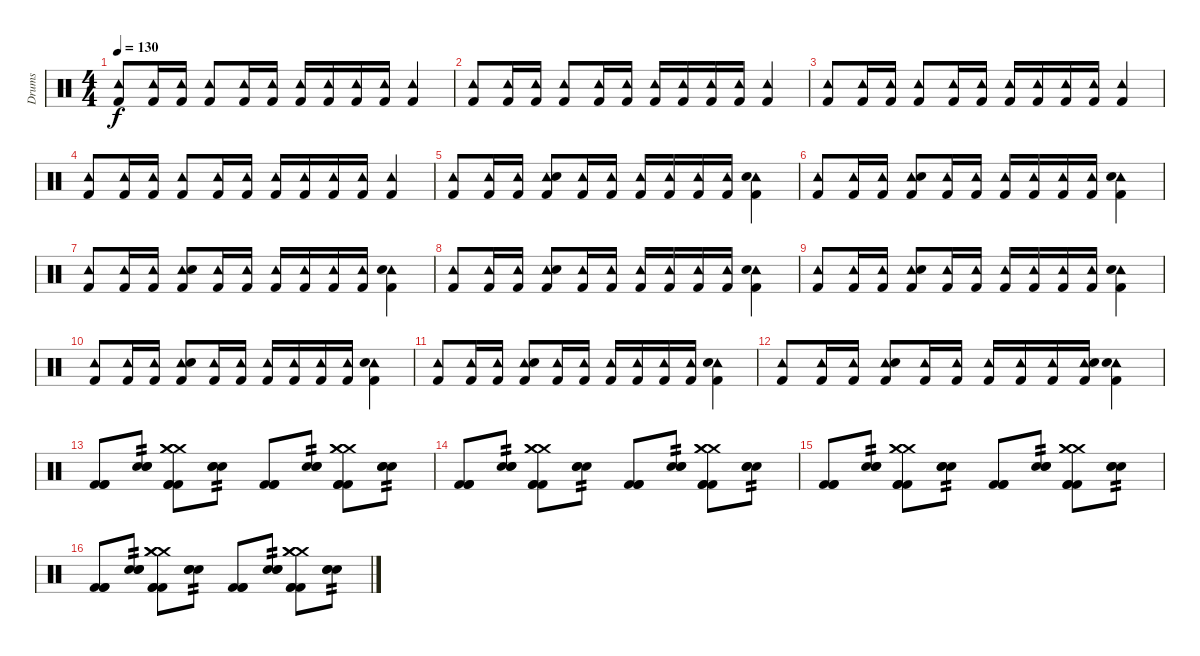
\track ("Drums" "Drums") {instrument percussion}
\staff {score}
\articulation defaults
\ts (4 4)
\tempo 130
\clef neutral
\ks c
("Tambourine (hit)" "Kick (hit) 2").8{dy f} ("Tambourine (hit)" "Kick (hit) 2").16 ("Tambourine (hit)" "Kick (hit) 2").16 ("Tambourine (hit)" "Kick (hit) 2").8 ("Tambourine (hit)" "Kick (hit) 2").16 ("Tambourine (hit)" "Kick (hit) 2").16 ("Tambourine (hit)" "Kick (hit) 2").16 ("Tambourine (hit)" "Kick (hit) 2").16 ("Tambourine (hit)" "Kick (hit) 2").16 ("Tambourine (hit)" "Kick (hit) 2").16 ("Tambourine (hit)" "Kick (hit) 2").4 |
("Tambourine (hit)" "Kick (hit) 2").8 ("Tambourine (hit)" "Kick (hit) 2").16 ("Tambourine (hit)" "Kick (hit) 2").16 ("Tambourine (hit)" "Kick (hit) 2").8 ("Tambourine (hit)" "Kick (hit) 2").16 ("Tambourine (hit)" "Kick (hit) 2").16 ("Tambourine (hit)" "Kick (hit) 2").16 ("Tambourine (hit)" "Kick (hit) 2").16 ("Tambourine (hit)" "Kick (hit) 2").16 ("Tambourine (hit)" "Kick (hit) 2").16 ("Tambourine (hit)" "Kick (hit) 2").4 |
("Tambourine (hit)" "Kick (hit) 2").8 ("Tambourine (hit)" "Kick (hit) 2").16 ("Tambourine (hit)" "Kick (hit) 2").16 ("Tambourine (hit)" "Kick (hit) 2").8 ("Tambourine (hit)" "Kick (hit) 2").16 ("Tambourine (hit)" "Kick (hit) 2").16 ("Tambourine (hit)" "Kick (hit) 2").16 ("Tambourine (hit)" "Kick (hit) 2").16 ("Tambourine (hit)" "Kick (hit) 2").16 ("Tambourine (hit)" "Kick (hit) 2").16 ("Tambourine (hit)" "Kick (hit) 2").4 |
("Tambourine (hit)" "Kick (hit) 2").8 ("Tambourine (hit)" "Kick (hit) 2").16 ("Tambourine (hit)" "Kick (hit) 2").16 ("Tambourine (hit)" "Kick (hit) 2").8 ("Tambourine (hit)" "Kick (hit) 2").16 ("Tambourine (hit)" "Kick (hit) 2").16 ("Tambourine (hit)" "Kick (hit) 2").16 ("Tambourine (hit)" "Kick (hit) 2").16 ("Tambourine (hit)" "Kick (hit) 2").16 ("Tambourine (hit)" "Kick (hit) 2").16 ("Tambourine (hit)" "Kick (hit) 2").4 |
("Tambourine (hit)" "Kick (hit) 2").8 ("Tambourine (hit)" "Kick (hit) 2").16 ("Tambourine (hit)" "Kick (hit) 2").16 ("Tambourine (hit)" "Kick (hit) 2" "Electric Snare (hit)").8 ("Tambourine (hit)" "Kick (hit) 2").16 ("Tambourine (hit)" "Kick (hit) 2").16 ("Tambourine (hit)" "Kick (hit) 2").16 ("Tambourine (hit)" "Kick (hit) 2").16 ("Tambourine (hit)" "Kick (hit) 2").16 ("Tambourine (hit)" "Kick (hit) 2").16 ("Tambourine (hit)" "Kick (hit) 2" "Electric Snare (hit)").4 |
("Tambourine (hit)" "Kick (hit) 2").8 ("Tambourine (hit)" "Kick (hit) 2").16 ("Tambourine (hit)" "Kick (hit) 2").16 ("Tambourine (hit)" "Kick (hit) 2" "Electric Snare (hit)").8 ("Tambourine (hit)" "Kick (hit) 2").16 ("Tambourine (hit)" "Kick (hit) 2").16 ("Tambourine (hit)" "Kick (hit) 2").16 ("Tambourine (hit)" "Kick (hit) 2").16 ("Tambourine (hit)" "Kick (hit) 2").16 ("Tambourine (hit)" "Kick (hit) 2").16 ("Tambourine (hit)" "Kick (hit) 2" "Electric Snare (hit)").4 |
("Tambourine (hit)" "Kick (hit) 2").8 ("Tambourine (hit)" "Kick (hit) 2").16 ("Tambourine (hit)" "Kick (hit) 2").16 ("Tambourine (hit)" "Kick (hit) 2" "Electric Snare (hit)").8 ("Tambourine (hit)" "Kick (hit) 2").16 ("Tambourine (hit)" "Kick (hit) 2").16 ("Tambourine (hit)" "Kick (hit) 2").16 ("Tambourine (hit)" "Kick (hit) 2").16 ("Tambourine (hit)" "Kick (hit) 2").16 ("Tambourine (hit)" "Kick (hit) 2").16 ("Tambourine (hit)" "Kick (hit) 2" "Electric Snare (hit)").4 |
("Tambourine (hit)" "Kick (hit) 2").8 ("Tambourine (hit)" "Kick (hit) 2").16 ("Tambourine (hit)" "Kick (hit) 2").16 ("Tambourine (hit)" "Kick (hit) 2" "Electric Snare (hit)").8 ("Tambourine (hit)" "Kick (hit) 2").16 ("Tambourine (hit)" "Kick (hit) 2").16 ("Tambourine (hit)" "Kick (hit) 2").16 ("Tambourine (hit)" "Kick (hit) 2").16 ("Tambourine (hit)" "Kick (hit) 2").16 ("Tambourine (hit)" "Kick (hit) 2").16 ("Tambourine (hit)" "Kick (hit) 2" "Electric Snare (hit)").4 |
("Tambourine (hit)" "Kick (hit) 2").8 ("Tambourine (hit)" "Kick (hit) 2").16 ("Tambourine (hit)" "Kick (hit) 2").16 ("Tambourine (hit)" "Kick (hit) 2" "Electric Snare (hit)").8 ("Tambourine (hit)" "Kick (hit) 2").16 ("Tambourine (hit)" "Kick (hit) 2").16 ("Tambourine (hit)" "Kick (hit) 2").16 ("Tambourine (hit)" "Kick (hit) 2").16 ("Tambourine (hit)" "Kick (hit) 2").16 ("Tambourine (hit)" "Kick (hit) 2").16 ("Tambourine (hit)" "Kick (hit) 2" "Electric Snare (hit)").4 |
("Tambourine (hit)" "Kick (hit) 2").8 ("Tambourine (hit)" "Kick (hit) 2").16 ("Tambourine (hit)" "Kick (hit) 2").16 ("Tambourine (hit)" "Kick (hit) 2" "Electric Snare (hit)").8 ("Tambourine (hit)" "Kick (hit) 2").16 ("Tambourine (hit)" "Kick (hit) 2").16 ("Tambourine (hit)" "Kick (hit) 2").16 ("Tambourine (hit)" "Kick (hit) 2").16 ("Tambourine (hit)" "Kick (hit) 2").16 ("Tambourine (hit)" "Kick (hit) 2").16 ("Tambourine (hit)" "Kick (hit) 2" "Electric Snare (hit)").4 |
("Tambourine (hit)" "Kick (hit) 2").8 ("Tambourine (hit)" "Kick (hit) 2").16 ("Tambourine (hit)" "Kick (hit) 2").16 ("Tambourine (hit)" "Kick (hit) 2" "Electric Snare (hit)").8 ("Tambourine (hit)" "Kick (hit) 2").16 ("Tambourine (hit)" "Kick (hit) 2").16 ("Tambourine (hit)" "Kick (hit) 2").16 ("Tambourine (hit)" "Kick (hit) 2").16 ("Tambourine (hit)" "Kick (hit) 2").16 ("Tambourine (hit)" "Kick (hit) 2").16 ("Tambourine (hit)" "Kick (hit) 2" "Electric Snare (hit)").4 |
("Tambourine (hit)" "Kick (hit) 2").8 ("Tambourine (hit)" "Kick (hit) 2").16 ("Tambourine (hit)" "Kick (hit) 2").16 ("Tambourine (hit)" "Kick (hit) 2" "Electric Snare (hit)").8 ("Tambourine (hit)" "Kick (hit) 2").16 ("Tambourine (hit)" "Kick (hit) 2").16 ("Tambourine (hit)" "Kick (hit) 2").16 ("Tambourine (hit)" "Kick (hit) 2").16 ("Tambourine (hit)" "Kick (hit) 2").16 ("Tambourine (hit)" "Kick (hit) 2" "Electric Snare (hit)").16 ("Tambourine (hit)" "Kick (hit) 2" "Electric Snare (hit)").4 |
("Kick (hit) 2" "Kick (hit) 2" "Kick (hit) 2").8 ("Electric Snare (hit)" "Electric Snare (hit)" "Electric Snare (hit)").8{tp 2} ("Kick (hit) 2" "Kick (hit) 2" "Kick (hit) 2" "Crash medium (hit)" "Crash medium (hit)" "Crash medium (hit)").8 ("Electric Snare (hit)" "Electric Snare (hit)" "Electric Snare (hit)").8{tp 2} ("Kick (hit) 2" "Kick (hit) 2" "Kick (hit) 2").8 ("Electric Snare (hit)" "Electric Snare (hit)" "Electric Snare (hit)").8{tp 2} ("Kick (hit) 2" "Kick (hit) 2" "Kick (hit) 2" "Crash medium (hit)" "Crash medium (hit)" "Crash medium (hit)").8 ("Electric Snare (hit)" "Electric Snare (hit)" "Electric Snare (hit)").8{tp 2} |
("Kick (hit) 2" "Kick (hit) 2" "Kick (hit) 2").8 ("Electric Snare (hit)" "Electric Snare (hit)" "Electric Snare (hit)").8{tp 2} ("Kick (hit) 2" "Kick (hit) 2" "Kick (hit) 2" "Crash medium (hit)" "Crash medium (hit)" "Crash medium (hit)").8 ("Electric Snare (hit)" "Electric Snare (hit)" "Electric Snare (hit)").8{tp 2} ("Kick (hit) 2" "Kick (hit) 2" "Kick (hit) 2").8 ("Electric Snare (hit)" "Electric Snare (hit)" "Electric Snare (hit)").8{tp 2} ("Kick (hit) 2" "Kick (hit) 2" "Kick (hit) 2" "Crash medium (hit)" "Crash medium (hit)" "Crash medium (hit)").8 ("Electric Snare (hit)" "Electric Snare (hit)" "Electric Snare (hit)").8{tp 2} |
("Kick (hit) 2" "Kick (hit) 2" "Kick (hit) 2").8 ("Electric Snare (hit)" "Electric Snare (hit)" "Electric Snare (hit)").8{tp 2} ("Kick (hit) 2" "Kick (hit) 2" "Kick (hit) 2" "Crash medium (hit)" "Crash medium (hit)" "Crash medium (hit)").8 ("Electric Snare (hit)" "Electric Snare (hit)" "Electric Snare (hit)").8{tp 2} ("Kick (hit) 2" "Kick (hit) 2" "Kick (hit) 2").8 ("Electric Snare (hit)" "Electric Snare (hit)" "Electric Snare (hit)").8{tp 2} ("Kick (hit) 2" "Kick (hit) 2" "Kick (hit) 2" "Crash medium (hit)" "Crash medium (hit)" "Crash medium (hit)").8 ("Electric Snare (hit)" "Electric Snare (hit)" "Electric Snare (hit)").8{tp 2} |
("Kick (hit) 2" "Kick (hit) 2" "Kick (hit) 2").8 ("Electric Snare (hit)" "Electric Snare (hit)" "Electric Snare (hit)").8{tp 2} ("Kick (hit) 2" "Kick (hit) 2" "Kick (hit) 2" "Crash medium (hit)" "Crash medium (hit)" "Crash medium (hit)").8 ("Electric Snare (hit)" "Electric Snare (hit)" "Electric Snare (hit)").8{tp 2} ("Kick (hit) 2" "Kick (hit) 2" "Kick (hit) 2").8 ("Electric Snare (hit)" "Electric Snare (hit)" "Electric Snare (hit)").8{tp 2} ("Kick (hit) 2" "Kick (hit) 2" "Kick (hit) 2" "Crash medium (hit)" "Crash medium (hit)" "Crash medium (hit)").8 ("Electric Snare (hit)" "Electric Snare (hit)" "Electric Snare (hit)").8{tp 2}
